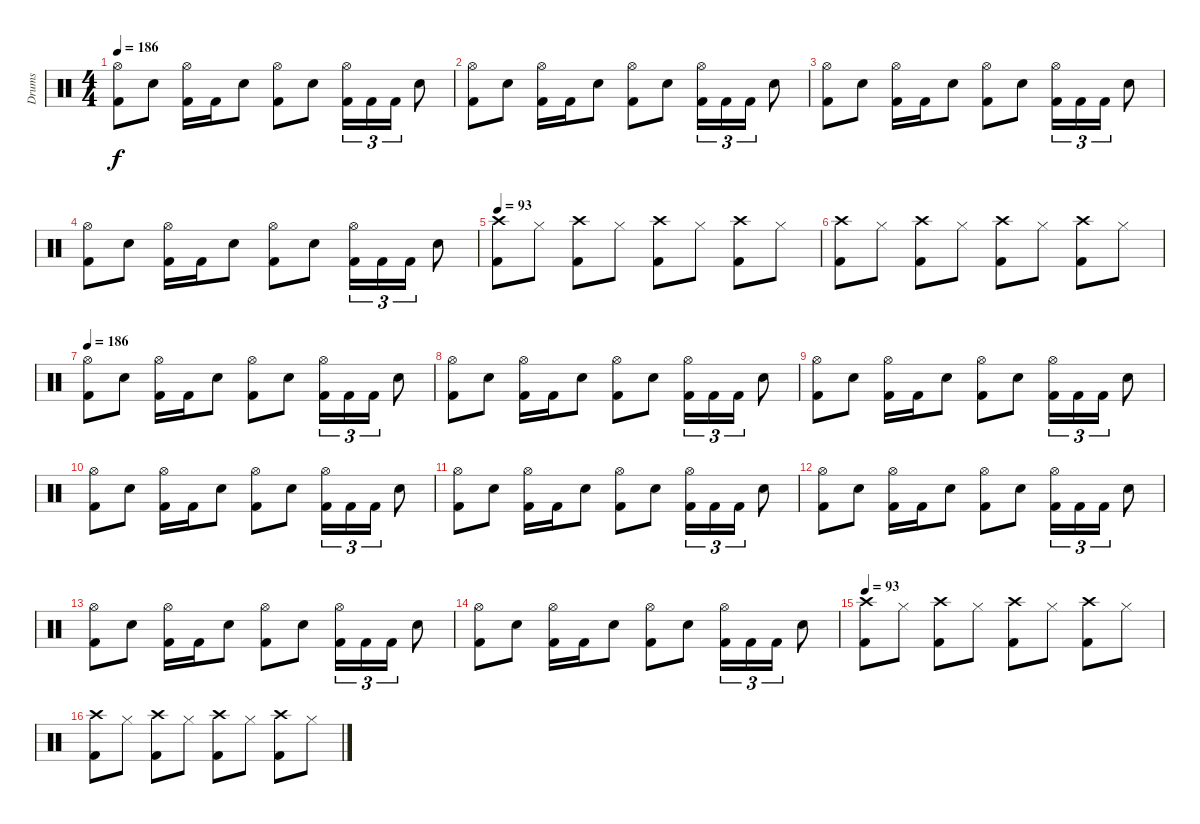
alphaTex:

\track ("Drums" "Drums") {instrument percussion}
\staff {score}
\articulation defaults
\ts (4 4)
\tempo 186
\clef neutral
\ks c
("Hi-Hat (open)" "Kick (hit) 2").8{dy f} "Snare (hit) 2".8 ("Hi-Hat (open)" "Kick (hit) 2").16 "Kick (hit) 2".16 "Snare (hit) 2".8 ("Hi-Hat (open)" "Kick (hit) 2").8 "Snare (hit) 2".8 ("Hi-Hat (open)" "Kick (hit) 2").16{tu (3 2)} "Kick (hit) 2".16{tu (3 2)} "Kick (hit) 2".16{tu (3 2)} "Snare (hit) 2".8 |
("Hi-Hat (open)" "Kick (hit) 2").8 "Snare (hit) 2".8 ("Hi-Hat (open)" "Kick (hit) 2").16 "Kick (hit) 2".16 "Snare (hit) 2".8 ("Hi-Hat (open)" "Kick (hit) 2").8 "Snare (hit) 2".8 ("Hi-Hat (open)" "Kick (hit) 2").16{tu (3 2)} "Kick (hit) 2".16{tu (3 2)} "Kick (hit) 2".16{tu (3 2)} "Snare (hit) 2".8 |
("Hi-Hat (open)" "Kick (hit) 2").8 "Snare (hit) 2".8 ("Hi-Hat (open)" "Kick (hit) 2").16 "Kick (hit) 2".16 "Snare (hit) 2".8 ("Hi-Hat (open)" "Kick (hit) 2").8 "Snare (hit) 2".8 ("Hi-Hat (open)" "Kick (hit) 2").16{tu (3 2)} "Kick (hit) 2".16{tu (3 2)} "Kick (hit) 2".16{tu (3 2)} "Snare (hit) 2".8 |
("Hi-Hat (open)" "Kick (hit) 2").8 "Snare (hit) 2".8 ("Hi-Hat (open)" "Kick (hit) 2").16 "Kick (hit) 2".16 "Snare (hit) 2".8 ("Hi-Hat (open)" "Kick (hit) 2").8 "Snare (hit) 2".8 ("Hi-Hat (open)" "Kick (hit) 2").16{tu (3 2)} "Kick (hit) 2".16{tu (3 2)} "Kick (hit) 2".16{tu (3 2)} "Snare (hit) 2".8 |
\tempo 93
("Crash high (hit)" "Kick (hit) 2").8 "Hi-Hat (closed)".8 ("Crash high (hit)" "Kick (hit) 2").8 "Hi-Hat (closed)".8 ("Crash high (hit)" "Kick (hit) 2").8 "Hi-Hat (closed)".8 ("Crash high (hit)" "Kick (hit) 2").8 "Hi-Hat (closed)".8 |
("Crash high (hit)" "Kick (hit) 2").8 "Hi-Hat (closed)".8 ("Crash high (hit)" "Kick (hit) 2").8 "Hi-Hat (closed)".8 ("Crash high (hit)" "Kick (hit) 2").8 "Hi-Hat (closed)".8 ("Crash high (hit)" "Kick (hit) 2").8 "Hi-Hat (closed)".8 |
\tempo 186
("Hi-Hat (open)" "Kick (hit) 2").8 "Snare (hit) 2".8 ("Hi-Hat (open)" "Kick (hit) 2").16 "Kick (hit) 2".16 "Snare (hit) 2".8 ("Hi-Hat (open)" "Kick (hit) 2").8 "Snare (hit) 2".8 ("Hi-Hat (open)" "Kick (hit) 2").16{tu (3 2)} "Kick (hit) 2".16{tu (3 2)} "Kick (hit) 2".16{tu (3 2)} "Snare (hit) 2".8 |
("Hi-Hat (open)" "Kick (hit) 2").8 "Snare (hit) 2".8 ("Hi-Hat (open)" "Kick (hit) 2").16 "Kick (hit) 2".16 "Snare (hit) 2".8 ("Hi-Hat (open)" "Kick (hit) 2").8 "Snare (hit) 2".8 ("Hi-Hat (open)" "Kick (hit) 2").16{tu (3 2)} "Kick (hit) 2".16{tu (3 2)} "Kick (hit) 2".16{tu (3 2)} "Snare (hit) 2".8 |
("Hi-Hat (open)" "Kick (hit) 2").8 "Snare (hit) 2".8 ("Hi-Hat (open)" "Kick (hit) 2").16 "Kick (hit) 2".16 "Snare (hit) 2".8 ("Hi-Hat (open)" "Kick (hit) 2").8 "Snare (hit) 2".8 ("Hi-Hat (open)" "Kick (hit) 2").16{tu (3 2)} "Kick (hit) 2".16{tu (3 2)} "Kick (hit) 2".16{tu (3 2)} "Snare (hit) 2".8 |
("Hi-Hat (open)" "Kick (hit) 2").8 "Snare (hit) 2".8 ("Hi-Hat (open)" "Kick (hit) 2").16 "Kick (hit) 2".16 "Snare (hit) 2".8 ("Hi-Hat (open)" "Kick (hit) 2").8 "Snare (hit) 2".8 ("Hi-Hat (open)" "Kick (hit) 2").16{tu (3 2)} "Kick (hit) 2".16{tu (3 2)} "Kick (hit) 2".16{tu (3 2)} "Snare (hit) 2".8 |
("Hi-Hat (open)" "Kick (hit) 2").8 "Snare (hit) 2".8 ("Hi-Hat (open)" "Kick (hit) 2").16 "Kick (hit) 2".16 "Snare (hit) 2".8 ("Hi-Hat (open)" "Kick (hit) 2").8 "Snare (hit) 2".8 ("Hi-Hat (open)" "Kick (hit) 2").16{tu (3 2)} "Kick (hit) 2".16{tu (3 2)} "Kick (hit) 2".16{tu (3 2)} "Snare (hit) 2".8 |
("Hi-Hat (open)" "Kick (hit) 2").8 "Snare (hit) 2".8 ("Hi-Hat (open)" "Kick (hit) 2").16 "Kick (hit) 2".16 "Snare (hit) 2".8 ("Hi-Hat (open)" "Kick (hit) 2").8 "Snare (hit) 2".8 ("Hi-Hat (open)" "Kick (hit) 2").16{tu (3 2)} "Kick (hit) 2".16{tu (3 2)} "Kick (hit) 2".16{tu (3 2)} "Snare (hit) 2".8 |
("Hi-Hat (open)" "Kick (hit) 2").8 "Snare (hit) 2".8 ("Hi-Hat (open)" "Kick (hit) 2").16 "Kick (hit) 2".16 "Snare (hit) 2".8 ("Hi-Hat (open)" "Kick (hit) 2").8 "Snare (hit) 2".8 ("Hi-Hat (open)" "Kick (hit) 2").16{tu (3 2)} "Kick (hit) 2".16{tu (3 2)} "Kick (hit) 2".16{tu (3 2)} "Snare (hit) 2".8 |
("Hi-Hat (open)" "Kick (hit) 2").8 "Snare (hit) 2".8 ("Hi-Hat (open)" "Kick (hit) 2").16 "Kick (hit) 2".16 "Snare (hit) 2".8 ("Hi-Hat (open)" "Kick (hit) 2").8 "Snare (hit) 2".8 ("Hi-Hat (open)" "Kick (hit) 2").16{tu (3 2)} "Kick (hit) 2".16{tu (3 2)} "Kick (hit) 2".16{tu (3 2)} "Snare (hit) 2".8 |
\tempo 93
("Crash high (hit)" "Kick (hit) 2").8 "Hi-Hat (closed)".8 ("Crash high (hit)" "Kick (hit) 2").8 "Hi-Hat (closed)".8 ("Crash high (hit)" "Kick (hit) 2").8 "Hi-Hat (closed)".8 ("Crash high (hit)" "Kick (hit) 2").8 "Hi-Hat (closed)".8 |
("Crash high (hit)" "Kick (hit) 2").8 "Hi-Hat (closed)".8 ("Crash high (hit)" "Kick (hit) 2").8 "Hi-Hat (closed)".8 ("Crash high (hit)" "Kick (hit) 2").8 "Hi-Hat (closed)".8 ("Crash high (hit)" "Kick (hit) 2").8 "Hi-Hat (closed)".8
